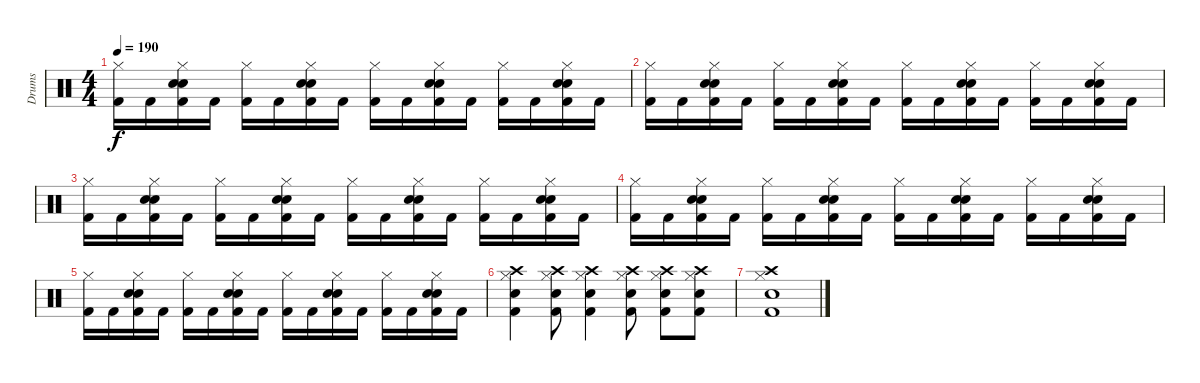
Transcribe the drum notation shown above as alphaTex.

\track ("Drums" "Drums") {instrument percussion}
\staff {score}
\articulation defaults
\ts (4 4)
\tempo 190
\clef neutral
\ks c
("Hi-Hat (closed)" "Kick (hit) 2").16{dy f} "Kick (hit) 2".16 ("Snare (hit) 2" "Hi-Hat (closed)" "Snare (hit) 2" "Kick (hit) 2").16 "Kick (hit) 2".16 ("Hi-Hat (closed)" "Kick (hit) 2").16 "Kick (hit) 2".16 ("Snare (hit) 2" "Hi-Hat (closed)" "Snare (hit) 2" "Kick (hit) 2").16 "Kick (hit) 2".16 ("Hi-Hat (closed)" "Kick (hit) 2").16 "Kick (hit) 2".16 ("Snare (hit) 2" "Hi-Hat (closed)" "Snare (hit) 2" "Kick (hit) 2").16 "Kick (hit) 2".16 ("Hi-Hat (closed)" "Kick (hit) 2").16 "Kick (hit) 2".16 ("Snare (hit) 2" "Hi-Hat (closed)" "Snare (hit) 2" "Kick (hit) 2").16 "Kick (hit) 2".16 |
("Hi-Hat (closed)" "Kick (hit) 2").16 "Kick (hit) 2".16 ("Snare (hit) 2" "Hi-Hat (closed)" "Snare (hit) 2" "Kick (hit) 2").16 "Kick (hit) 2".16 ("Hi-Hat (closed)" "Kick (hit) 2").16 "Kick (hit) 2".16 ("Snare (hit) 2" "Hi-Hat (closed)" "Snare (hit) 2" "Kick (hit) 2").16 "Kick (hit) 2".16 ("Hi-Hat (closed)" "Kick (hit) 2").16 "Kick (hit) 2".16 ("Snare (hit) 2" "Hi-Hat (closed)" "Snare (hit) 2" "Kick (hit) 2").16 "Kick (hit) 2".16 ("Hi-Hat (closed)" "Kick (hit) 2").16 "Kick (hit) 2".16 ("Snare (hit) 2" "Hi-Hat (closed)" "Snare (hit) 2" "Kick (hit) 2").16 "Kick (hit) 2".16 |
("Hi-Hat (closed)" "Kick (hit) 2").16 "Kick (hit) 2".16 ("Snare (hit) 2" "Hi-Hat (closed)" "Snare (hit) 2" "Kick (hit) 2").16 "Kick (hit) 2".16 ("Hi-Hat (closed)" "Kick (hit) 2").16 "Kick (hit) 2".16 ("Snare (hit) 2" "Hi-Hat (closed)" "Snare (hit) 2" "Kick (hit) 2").16 "Kick (hit) 2".16 ("Hi-Hat (closed)" "Kick (hit) 2").16 "Kick (hit) 2".16 ("Snare (hit) 2" "Hi-Hat (closed)" "Snare (hit) 2" "Kick (hit) 2").16 "Kick (hit) 2".16 ("Hi-Hat (closed)" "Kick (hit) 2").16 "Kick (hit) 2".16 ("Snare (hit) 2" "Hi-Hat (closed)" "Snare (hit) 2" "Kick (hit) 2").16 "Kick (hit) 2".16 |
("Hi-Hat (closed)" "Kick (hit) 2").16 "Kick (hit) 2".16 ("Snare (hit) 2" "Hi-Hat (closed)" "Snare (hit) 2" "Kick (hit) 2").16 "Kick (hit) 2".16 ("Hi-Hat (closed)" "Kick (hit) 2").16 "Kick (hit) 2".16 ("Snare (hit) 2" "Hi-Hat (closed)" "Snare (hit) 2" "Kick (hit) 2").16 "Kick (hit) 2".16 ("Hi-Hat (closed)" "Kick (hit) 2").16 "Kick (hit) 2".16 ("Snare (hit) 2" "Hi-Hat (closed)" "Snare (hit) 2" "Kick (hit) 2").16 "Kick (hit) 2".16 ("Hi-Hat (closed)" "Kick (hit) 2").16 "Kick (hit) 2".16 ("Snare (hit) 2" "Hi-Hat (closed)" "Snare (hit) 2" "Kick (hit) 2").16 "Kick (hit) 2".16 |
("Hi-Hat (closed)" "Kick (hit) 2").16 "Kick (hit) 2".16 ("Snare (hit) 2" "Hi-Hat (closed)" "Snare (hit) 2" "Kick (hit) 2").16 "Kick (hit) 2".16 ("Hi-Hat (closed)" "Kick (hit) 2").16 "Kick (hit) 2".16 ("Snare (hit) 2" "Hi-Hat (closed)" "Snare (hit) 2" "Kick (hit) 2").16 "Kick (hit) 2".16 ("Hi-Hat (closed)" "Kick (hit) 2").16 "Kick (hit) 2".16 ("Snare (hit) 2" "Hi-Hat (closed)" "Snare (hit) 2" "Kick (hit) 2").16 "Kick (hit) 2".16 ("Hi-Hat (closed)" "Kick (hit) 2").16 "Kick (hit) 2".16 ("Snare (hit) 2" "Hi-Hat (closed)" "Snare (hit) 2" "Kick (hit) 2").16 "Kick (hit) 2".16 |
("Crash high (hit)" "Hi-Hat (closed)" "Snare (hit) 2" "Kick (hit) 2").4 ("Crash high (hit)" "Hi-Hat (closed)" "Snare (hit) 2" "Kick (hit) 2").8 ("Crash high (hit)" "Hi-Hat (closed)" "Snare (hit) 2" "Kick (hit) 2").4 ("Crash high (hit)" "Hi-Hat (closed)" "Snare (hit) 2" "Kick (hit) 2").8 ("Crash high (hit)" "Hi-Hat (closed)" "Snare (hit) 2" "Kick (hit) 2").8 ("Crash high (hit)" "Hi-Hat (closed)" "Snare (hit) 2" "Kick (hit) 2").8 |
("Crash high (hit)" "Hi-Hat (closed)" "Snare (hit) 2" "Kick (hit) 2").1
